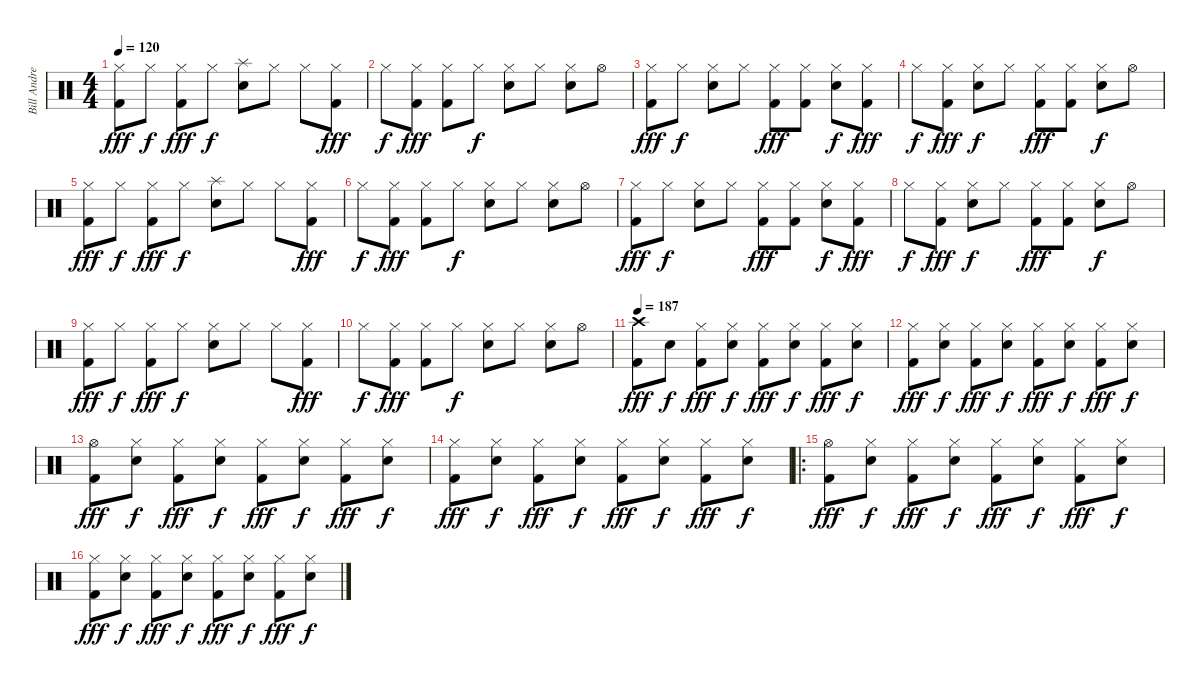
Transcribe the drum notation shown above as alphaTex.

\track ("Bill Andrews" "Bill Andre") {instrument percussion}
\staff {score}
\articulation defaults
\ts (4 4)
\tempo 120
\clef neutral
\ks c
("Hi-Hat (closed)" "Kick (hit) 2").8{dy fff} "Hi-Hat (closed)".8{dy f} ("Hi-Hat (closed)" "Kick (hit) 2").8{dy fff} "Hi-Hat (closed)".8{dy f} ("Splash (hit)" "Electric Snare (hit)").8 "Hi-Hat (closed)".8 "Hi-Hat (closed)".8 ("Hi-Hat (closed)" "Kick (hit) 2").8{dy fff} |
"Hi-Hat (closed)".8{dy f} ("Hi-Hat (closed)" "Kick (hit) 2").8{dy fff} ("Hi-Hat (closed)" "Kick (hit) 2").8 "Hi-Hat (closed)".8{dy f} ("Hi-Hat (closed)" "Electric Snare (hit)").8 "Hi-Hat (closed)".8 ("Hi-Hat (closed)" "Electric Snare (hit)").8 "Hi-Hat (open)".8 |
("Hi-Hat (closed)" "Kick (hit) 2").8{dy fff} "Hi-Hat (closed)".8{dy f} ("Hi-Hat (closed)" "Electric Snare (hit)").8 "Hi-Hat (closed)".8 ("Hi-Hat (closed)" "Kick (hit) 2").8{dy fff} ("Hi-Hat (closed)" "Kick (hit) 2").8 ("Hi-Hat (closed)" "Electric Snare (hit)").8{dy f} ("Hi-Hat (closed)" "Kick (hit) 2").8{dy fff} |
"Hi-Hat (closed)".8{dy f} ("Hi-Hat (closed)" "Kick (hit) 2").8{dy fff} ("Hi-Hat (closed)" "Electric Snare (hit)").8{dy f} "Hi-Hat (closed)".8 ("Hi-Hat (closed)" "Kick (hit) 2").8{dy fff} ("Hi-Hat (closed)" "Kick (hit) 2").8 ("Hi-Hat (closed)" "Electric Snare (hit)").8{dy f} "Hi-Hat (open)".8 |
("Hi-Hat (closed)" "Kick (hit) 2").8{dy fff} "Hi-Hat (closed)".8{dy f} ("Hi-Hat (closed)" "Kick (hit) 2").8{dy fff} "Hi-Hat (closed)".8{dy f} ("Splash (hit)" "Electric Snare (hit)").8 "Hi-Hat (closed)".8 "Hi-Hat (closed)".8 ("Hi-Hat (closed)" "Kick (hit) 2").8{dy fff} |
"Hi-Hat (closed)".8{dy f} ("Hi-Hat (closed)" "Kick (hit) 2").8{dy fff} ("Hi-Hat (closed)" "Kick (hit) 2").8 "Hi-Hat (closed)".8{dy f} ("Hi-Hat (closed)" "Electric Snare (hit)").8 "Hi-Hat (closed)".8 ("Hi-Hat (closed)" "Electric Snare (hit)").8 "Hi-Hat (open)".8 |
("Hi-Hat (closed)" "Kick (hit) 2").8{dy fff} "Hi-Hat (closed)".8{dy f} ("Hi-Hat (closed)" "Electric Snare (hit)").8 "Hi-Hat (closed)".8 ("Hi-Hat (closed)" "Kick (hit) 2").8{dy fff} ("Hi-Hat (closed)" "Kick (hit) 2").8 ("Hi-Hat (closed)" "Electric Snare (hit)").8{dy f} ("Hi-Hat (closed)" "Kick (hit) 2").8{dy fff} |
"Hi-Hat (closed)".8{dy f} ("Hi-Hat (closed)" "Kick (hit) 2").8{dy fff} ("Hi-Hat (closed)" "Electric Snare (hit)").8{dy f} "Hi-Hat (closed)".8 ("Hi-Hat (closed)" "Kick (hit) 2").8{dy fff} ("Hi-Hat (closed)" "Kick (hit) 2").8 ("Hi-Hat (closed)" "Electric Snare (hit)").8{dy f} "Hi-Hat (open)".8 |
("Hi-Hat (closed)" "Kick (hit) 2").8{dy fff} "Hi-Hat (closed)".8{dy f} ("Hi-Hat (closed)" "Kick (hit) 2").8{dy fff} "Hi-Hat (closed)".8{dy f} ("Hi-Hat (closed)" "Electric Snare (hit)").8 "Hi-Hat (closed)".8 "Hi-Hat (closed)".8 ("Hi-Hat (closed)" "Kick (hit) 2").8{dy fff} |
"Hi-Hat (closed)".8{dy f} ("Hi-Hat (closed)" "Kick (hit) 2").8{dy fff} ("Hi-Hat (closed)" "Kick (hit) 2").8 "Hi-Hat (closed)".8{dy f} ("Hi-Hat (closed)" "Electric Snare (hit)").8 "Hi-Hat (closed)".8 ("Hi-Hat (closed)" "Electric Snare (hit)").8 "Hi-Hat (open)".8 |
\tempo 187
("Crash high (hit)" "Kick (hit) 2").8{dy fff} "Electric Snare (hit)".8{dy f} ("Hi-Hat (closed)" "Kick (hit) 2").8{dy fff} ("Hi-Hat (closed)" "Electric Snare (hit)").8{dy f} ("Hi-Hat (closed)" "Kick (hit) 2").8{dy fff} ("Hi-Hat (closed)" "Electric Snare (hit)").8{dy f} ("Hi-Hat (closed)" "Kick (hit) 2").8{dy fff} ("Hi-Hat (closed)" "Electric Snare (hit)").8{dy f} |
("Hi-Hat (closed)" "Kick (hit) 2").8{dy fff} ("Hi-Hat (closed)" "Electric Snare (hit)").8{dy f} ("Hi-Hat (closed)" "Kick (hit) 2").8{dy fff} ("Hi-Hat (closed)" "Electric Snare (hit)").8{dy f} ("Hi-Hat (closed)" "Kick (hit) 2").8{dy fff} ("Hi-Hat (closed)" "Electric Snare (hit)").8{dy f} ("Hi-Hat (closed)" "Kick (hit) 2").8{dy fff} ("Hi-Hat (closed)" "Electric Snare (hit)").8{dy f} |
("Hi-Hat (open)" "Kick (hit) 2").8{dy fff} ("Hi-Hat (closed)" "Electric Snare (hit)").8{dy f} ("Hi-Hat (closed)" "Kick (hit) 2").8{dy fff} ("Hi-Hat (closed)" "Electric Snare (hit)").8{dy f} ("Hi-Hat (closed)" "Kick (hit) 2").8{dy fff} ("Hi-Hat (closed)" "Electric Snare (hit)").8{dy f} ("Hi-Hat (closed)" "Kick (hit) 2").8{dy fff} ("Hi-Hat (closed)" "Electric Snare (hit)").8{dy f} |
("Hi-Hat (closed)" "Kick (hit) 2").8{dy fff} ("Hi-Hat (closed)" "Electric Snare (hit)").8{dy f} ("Hi-Hat (closed)" "Kick (hit) 2").8{dy fff} ("Hi-Hat (closed)" "Electric Snare (hit)").8{dy f} ("Hi-Hat (closed)" "Kick (hit) 2").8{dy fff} ("Hi-Hat (closed)" "Electric Snare (hit)").8{dy f} ("Hi-Hat (closed)" "Kick (hit) 2").8{dy fff} ("Hi-Hat (closed)" "Electric Snare (hit)").8{dy f} |
\ro
("Hi-Hat (open)" "Kick (hit) 2").8{dy fff} ("Hi-Hat (closed)" "Electric Snare (hit)").8{dy f} ("Hi-Hat (closed)" "Kick (hit) 2").8{dy fff} ("Hi-Hat (closed)" "Electric Snare (hit)").8{dy f} ("Hi-Hat (closed)" "Kick (hit) 2").8{dy fff} ("Hi-Hat (closed)" "Electric Snare (hit)").8{dy f} ("Hi-Hat (closed)" "Kick (hit) 2").8{dy fff} ("Hi-Hat (closed)" "Electric Snare (hit)").8{dy f} |
("Hi-Hat (closed)" "Kick (hit) 2").8{dy fff} ("Hi-Hat (closed)" "Electric Snare (hit)").8{dy f} ("Hi-Hat (closed)" "Kick (hit) 2").8{dy fff} ("Hi-Hat (closed)" "Electric Snare (hit)").8{dy f} ("Hi-Hat (closed)" "Kick (hit) 2").8{dy fff} ("Hi-Hat (closed)" "Electric Snare (hit)").8{dy f} ("Hi-Hat (closed)" "Kick (hit) 2").8{dy fff} ("Hi-Hat (closed)" "Electric Snare (hit)").8{dy f}
